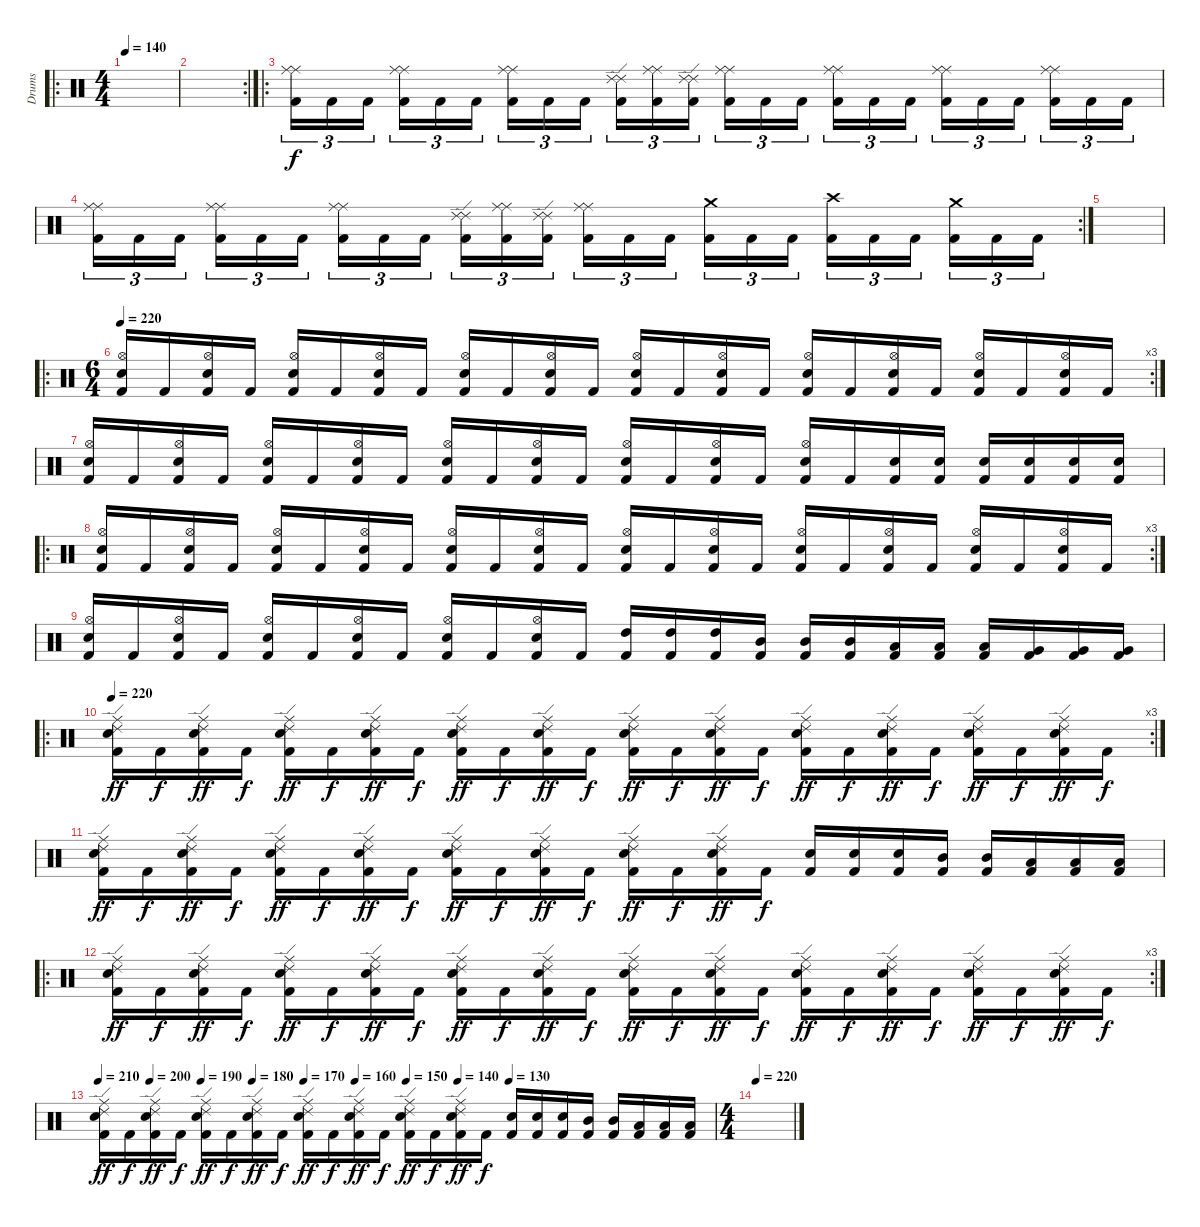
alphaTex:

\track ("Drums" "Drums") {instrument percussion}
\staff {score}
\articulation defaults
\ro
\ts (4 4)
\tempo 140
\clef neutral
\ks c
|
\rc 2
|
\ro
("Ride (middle)" "Ride (middle)" "Kick (hit) 2").16{tu (3 2)} "Kick (hit) 2".16{tu (3 2)} "Kick (hit) 2".16{tu (3 2)} ("Ride (middle)" "Ride (middle)" "Kick (hit) 2").16{tu (3 2)} "Kick (hit) 2".16{tu (3 2)} "Kick (hit) 2".16{tu (3 2)} ("Ride (middle)" "Ride (middle)" "Kick (hit) 2").16{tu (3 2)} "Kick (hit) 2".16{tu (3 2)} "Kick (hit) 2".16{tu (3 2)} ("Ride (edge) 2" "Ride (edge) 2" "Kick (hit) 2").16{tu (3 2)} ("Ride (middle)" "Ride (middle)" "Kick (hit) 2").16{tu (3 2)} ("Ride (edge) 2" "Ride (edge) 2" "Kick (hit) 2").16{tu (3 2)} ("Ride (middle)" "Ride (middle)" "Kick (hit) 2").16{tu (3 2)} "Kick (hit) 2".16{tu (3 2)} "Kick (hit) 2".16{tu (3 2)} ("Ride (middle)" "Ride (middle)" "Kick (hit) 2").16{tu (3 2)} "Kick (hit) 2".16{tu (3 2)} "Kick (hit) 2".16{tu (3 2)} ("Ride (middle)" "Ride (middle)" "Kick (hit) 2").16{tu (3 2)} "Kick (hit) 2".16{tu (3 2)} "Kick (hit) 2".16{tu (3 2)} ("Ride (middle)" "Ride (middle)" "Kick (hit) 2").16{tu (3 2)} "Kick (hit) 2".16{tu (3 2)} "Kick (hit) 2".16{tu (3 2)} |
\rc 2
("Ride (middle)" "Ride (middle)" "Kick (hit) 2").16{tu (3 2)} "Kick (hit) 2".16{tu (3 2)} "Kick (hit) 2".16{tu (3 2)} ("Ride (middle)" "Ride (middle)" "Kick (hit) 2").16{tu (3 2)} "Kick (hit) 2".16{tu (3 2)} "Kick (hit) 2".16{tu (3 2)} ("Ride (middle)" "Ride (middle)" "Kick (hit) 2").16{tu (3 2)} "Kick (hit) 2".16{tu (3 2)} "Kick (hit) 2".16{tu (3 2)} ("Ride (edge) 2" "Ride (edge) 2" "Kick (hit) 2").16{tu (3 2)} ("Ride (middle)" "Ride (middle)" "Kick (hit) 2").16{tu (3 2)} ("Ride (edge) 2" "Ride (edge) 2" "Kick (hit) 2").16{tu (3 2)} ("Ride (middle)" "Ride (middle)" "Kick (hit) 2").16{tu (3 2)} "Kick (hit) 2".16{tu (3 2)} "Kick (hit) 2".16{tu (3 2)} ("Crash medium (hit)" "Kick (hit) 2").16{tu (3 2)} "Kick (hit) 2".16{tu (3 2)} "Kick (hit) 2".16{tu (3 2)} ("Crash high (hit)" "Kick (hit) 2").16{tu (3 2)} "Kick (hit) 2".16{tu (3 2)} "Kick (hit) 2".16{tu (3 2)} ("Crash medium (hit)" "Kick (hit) 2").16{tu (3 2)} "Kick (hit) 2".16{tu (3 2)} "Kick (hit) 2".16{tu (3 2)} |
|
\ro
\rc 3
\ts (6 4)
\tempo 220
("Hi-Hat (open)" "Snare (hit) 2" "Kick (hit) 2").16 "Kick (hit) 2".16 ("Hi-Hat (open)" "Snare (hit) 2" "Kick (hit) 2").16 "Kick (hit) 2".16 ("Hi-Hat (open)" "Snare (hit) 2" "Kick (hit) 2").16 "Kick (hit) 2".16 ("Hi-Hat (open)" "Snare (hit) 2" "Kick (hit) 2").16 "Kick (hit) 2".16 ("Hi-Hat (open)" "Snare (hit) 2" "Kick (hit) 2").16 "Kick (hit) 2".16 ("Hi-Hat (open)" "Snare (hit) 2" "Kick (hit) 2").16 "Kick (hit) 2".16 ("Hi-Hat (open)" "Snare (hit) 2" "Kick (hit) 2").16 "Kick (hit) 2".16 ("Hi-Hat (open)" "Snare (hit) 2" "Kick (hit) 2").16 "Kick (hit) 2".16 ("Hi-Hat (open)" "Snare (hit) 2" "Kick (hit) 2").16 "Kick (hit) 2".16 ("Hi-Hat (open)" "Snare (hit) 2" "Kick (hit) 2").16 "Kick (hit) 2".16 ("Hi-Hat (open)" "Snare (hit) 2" "Kick (hit) 2").16 "Kick (hit) 2".16 ("Hi-Hat (open)" "Snare (hit) 2" "Kick (hit) 2").16 "Kick (hit) 2".16 |
("Hi-Hat (open)" "Snare (hit) 2" "Kick (hit) 2").16 "Kick (hit) 2".16 ("Hi-Hat (open)" "Snare (hit) 2" "Kick (hit) 2").16 "Kick (hit) 2".16 ("Hi-Hat (open)" "Snare (hit) 2" "Kick (hit) 2").16 "Kick (hit) 2".16 ("Hi-Hat (open)" "Snare (hit) 2" "Kick (hit) 2").16 "Kick (hit) 2".16 ("Hi-Hat (open)" "Snare (hit) 2" "Kick (hit) 2").16 "Kick (hit) 2".16 ("Hi-Hat (open)" "Snare (hit) 2" "Kick (hit) 2").16 "Kick (hit) 2".16 ("Hi-Hat (open)" "Snare (hit) 2" "Kick (hit) 2").16 "Kick (hit) 2".16 ("Hi-Hat (open)" "Snare (hit) 2" "Kick (hit) 2").16 "Kick (hit) 2".16 ("Hi-Hat (open)" "Snare (hit) 2" "Kick (hit) 2").16 "Kick (hit) 2".16 ("Snare (hit) 2" "Kick (hit) 2").16 ("Snare (hit) 2" "Kick (hit) 2").16 ("Snare (hit) 2" "Kick (hit) 2").16 ("Snare (hit) 2" "Kick (hit) 2").16 ("Snare (hit) 2" "Kick (hit) 2").16 ("Snare (hit) 2" "Kick (hit) 2").16 |
\ro
\rc 3
("Hi-Hat (open)" "Snare (hit) 2" "Kick (hit) 2").16 "Kick (hit) 2".16 ("Hi-Hat (open)" "Snare (hit) 2" "Kick (hit) 2").16 "Kick (hit) 2".16 ("Hi-Hat (open)" "Snare (hit) 2" "Kick (hit) 2").16 "Kick (hit) 2".16 ("Hi-Hat (open)" "Snare (hit) 2" "Kick (hit) 2").16 "Kick (hit) 2".16 ("Hi-Hat (open)" "Snare (hit) 2" "Kick (hit) 2").16 "Kick (hit) 2".16 ("Hi-Hat (open)" "Snare (hit) 2" "Kick (hit) 2").16 "Kick (hit) 2".16 ("Hi-Hat (open)" "Snare (hit) 2" "Kick (hit) 2").16 "Kick (hit) 2".16 ("Hi-Hat (open)" "Snare (hit) 2" "Kick (hit) 2").16 "Kick (hit) 2".16 ("Hi-Hat (open)" "Snare (hit) 2" "Kick (hit) 2").16 "Kick (hit) 2".16 ("Hi-Hat (open)" "Snare (hit) 2" "Kick (hit) 2").16 "Kick (hit) 2".16 ("Hi-Hat (open)" "Snare (hit) 2" "Kick (hit) 2").16 "Kick (hit) 2".16 ("Hi-Hat (open)" "Snare (hit) 2" "Kick (hit) 2").16 "Kick (hit) 2".16 |
("Hi-Hat (open)" "Snare (hit) 2" "Kick (hit) 2").16 "Kick (hit) 2".16 ("Hi-Hat (open)" "Snare (hit) 2" "Kick (hit) 2").16 "Kick (hit) 2".16 ("Hi-Hat (open)" "Snare (hit) 2" "Kick (hit) 2").16 "Kick (hit) 2".16 ("Hi-Hat (open)" "Snare (hit) 2" "Kick (hit) 2").16 "Kick (hit) 2".16 ("Hi-Hat (open)" "Snare (hit) 2" "Kick (hit) 2").16 "Kick (hit) 2".16 ("Hi-Hat (open)" "Snare (hit) 2" "Kick (hit) 2").16 "Kick (hit) 2".16 ("High Tom (hit)" "Kick (hit) 2").16 ("High Tom (hit)" "Kick (hit) 2").16 ("High Tom (hit)" "Kick (hit) 2").16 ("Mid Tom (hit)" "Kick (hit) 2").16 ("Mid Tom (hit)" "Kick (hit) 2").16 ("Mid Tom (hit)" "Kick (hit) 2").16 ("Low Tom (hit)" "Kick (hit) 2").16 ("Low Tom (hit)" "Kick (hit) 2").16 ("Low Tom (hit)" "Kick (hit) 2").16 ("Very Low Tom (hit)" "Kick (hit) 2").16 ("Very Low Tom (hit)" "Kick (hit) 2").16 ("Very Low Tom (hit)" "Kick (hit) 2").16 |
\ro
\rc 3
\tempo 220
("Ride (edge) 2" "Ride (middle)" "Snare (hit) 2" "Kick (hit) 2").16{dy ff} "Kick (hit) 2".16{dy f} ("Ride (edge) 2" "Ride (middle)" "Snare (hit) 2" "Kick (hit) 2").16{dy ff} "Kick (hit) 2".16{dy f} ("Ride (edge) 2" "Ride (middle)" "Snare (hit) 2" "Kick (hit) 2").16{dy ff} "Kick (hit) 2".16{dy f} ("Ride (edge) 2" "Ride (middle)" "Snare (hit) 2" "Kick (hit) 2").16{dy ff} "Kick (hit) 2".16{dy f} ("Ride (edge) 2" "Ride (middle)" "Snare (hit) 2" "Kick (hit) 2").16{dy ff} "Kick (hit) 2".16{dy f} ("Ride (edge) 2" "Ride (middle)" "Snare (hit) 2" "Kick (hit) 2").16{dy ff} "Kick (hit) 2".16{dy f} ("Ride (edge) 2" "Ride (middle)" "Snare (hit) 2" "Kick (hit) 2").16{dy ff} "Kick (hit) 2".16{dy f} ("Ride (edge) 2" "Ride (middle)" "Snare (hit) 2" "Kick (hit) 2").16{dy ff} "Kick (hit) 2".16{dy f} ("Ride (edge) 2" "Ride (middle)" "Snare (hit) 2" "Kick (hit) 2").16{dy ff} "Kick (hit) 2".16{dy f} ("Ride (edge) 2" "Ride (middle)" "Snare (hit) 2" "Kick (hit) 2").16{dy ff} "Kick (hit) 2".16{dy f} ("Ride (edge) 2" "Ride (middle)" "Snare (hit) 2" "Kick (hit) 2").16{dy ff} "Kick (hit) 2".16{dy f} ("Ride (edge) 2" "Ride (middle)" "Snare (hit) 2" "Kick (hit) 2").16{dy ff} "Kick (hit) 2".16{dy f} |
("Ride (edge) 2" "Ride (middle)" "Snare (hit) 2" "Kick (hit) 2").16{dy ff} "Kick (hit) 2".16{dy f} ("Ride (edge) 2" "Ride (middle)" "Snare (hit) 2" "Kick (hit) 2").16{dy ff} "Kick (hit) 2".16{dy f} ("Ride (edge) 2" "Ride (middle)" "Snare (hit) 2" "Kick (hit) 2").16{dy ff} "Kick (hit) 2".16{dy f} ("Ride (edge) 2" "Ride (middle)" "Snare (hit) 2" "Kick (hit) 2").16{dy ff} "Kick (hit) 2".16{dy f} ("Ride (edge) 2" "Ride (middle)" "Snare (hit) 2" "Kick (hit) 2").16{dy ff} "Kick (hit) 2".16{dy f} ("Ride (edge) 2" "Ride (middle)" "Snare (hit) 2" "Kick (hit) 2").16{dy ff} "Kick (hit) 2".16{dy f} ("Ride (edge) 2" "Ride (middle)" "Snare (hit) 2" "Kick (hit) 2").16{dy ff} "Kick (hit) 2".16{dy f} ("Ride (edge) 2" "Ride (middle)" "Snare (hit) 2" "Kick (hit) 2").16{dy ff} "Kick (hit) 2".16{dy f} ("Snare (hit) 2" "Kick (hit) 2").16 ("Snare (hit) 2" "Kick (hit) 2").16 ("Snare (hit) 2" "Kick (hit) 2").16 ("Mid Tom (hit)" "Kick (hit) 2").16 ("Mid Tom (hit)" "Kick (hit) 2").16 ("Low Tom (hit)" "Kick (hit) 2").16 ("Low Tom (hit)" "Kick (hit) 2").16 ("Low Tom (hit)" "Kick (hit) 2").16 |
\ro
\rc 3
("Ride (edge) 2" "Ride (middle)" "Snare (hit) 2" "Kick (hit) 2").16{dy ff} "Kick (hit) 2".16{dy f} ("Ride (edge) 2" "Ride (middle)" "Snare (hit) 2" "Kick (hit) 2").16{dy ff} "Kick (hit) 2".16{dy f} ("Ride (edge) 2" "Ride (middle)" "Snare (hit) 2" "Kick (hit) 2").16{dy ff} "Kick (hit) 2".16{dy f} ("Ride (edge) 2" "Ride (middle)" "Snare (hit) 2" "Kick (hit) 2").16{dy ff} "Kick (hit) 2".16{dy f} ("Ride (edge) 2" "Ride (middle)" "Snare (hit) 2" "Kick (hit) 2").16{dy ff} "Kick (hit) 2".16{dy f} ("Ride (edge) 2" "Ride (middle)" "Snare (hit) 2" "Kick (hit) 2").16{dy ff} "Kick (hit) 2".16{dy f} ("Ride (edge) 2" "Ride (middle)" "Snare (hit) 2" "Kick (hit) 2").16{dy ff} "Kick (hit) 2".16{dy f} ("Ride (edge) 2" "Ride (middle)" "Snare (hit) 2" "Kick (hit) 2").16{dy ff} "Kick (hit) 2".16{dy f} ("Ride (edge) 2" "Ride (middle)" "Snare (hit) 2" "Kick (hit) 2").16{dy ff} "Kick (hit) 2".16{dy f} ("Ride (edge) 2" "Ride (middle)" "Snare (hit) 2" "Kick (hit) 2").16{dy ff} "Kick (hit) 2".16{dy f} ("Ride (edge) 2" "Ride (middle)" "Snare (hit) 2" "Kick (hit) 2").16{dy ff} "Kick (hit) 2".16{dy f} ("Ride (edge) 2" "Ride (middle)" "Snare (hit) 2" "Kick (hit) 2").16{dy ff} "Kick (hit) 2".16{dy f} |
\tempo 210
\tempo (200 0.08333333333333333)
\tempo (190 0.16666666666666666)
\tempo (180 0.25)
\tempo (170 0.3333333333333333)
\tempo (160 0.4166666666666667)
\tempo (150 0.5)
\tempo (140 0.5833333333333334)
\tempo (130 0.6666666666666666)
("Ride (edge) 2" "Ride (middle)" "Snare (hit) 2" "Kick (hit) 2").16{dy ff} "Kick (hit) 2".16{dy f} ("Ride (edge) 2" "Ride (middle)" "Snare (hit) 2" "Kick (hit) 2").16{dy ff} "Kick (hit) 2".16{dy f} ("Ride (edge) 2" "Ride (middle)" "Snare (hit) 2" "Kick (hit) 2").16{dy ff} "Kick (hit) 2".16{dy f} ("Ride (edge) 2" "Ride (middle)" "Snare (hit) 2" "Kick (hit) 2").16{dy ff} "Kick (hit) 2".16{dy f} ("Ride (edge) 2" "Ride (middle)" "Snare (hit) 2" "Kick (hit) 2").16{dy ff} "Kick (hit) 2".16{dy f} ("Ride (edge) 2" "Ride (middle)" "Snare (hit) 2" "Kick (hit) 2").16{dy ff} "Kick (hit) 2".16{dy f} ("Ride (edge) 2" "Ride (middle)" "Snare (hit) 2" "Kick (hit) 2").16{dy ff} "Kick (hit) 2".16{dy f} ("Ride (edge) 2" "Ride (middle)" "Snare (hit) 2" "Kick (hit) 2").16{dy ff} "Kick (hit) 2".16{dy f} ("Snare (hit) 2" "Kick (hit) 2").16 ("Snare (hit) 2" "Kick (hit) 2").16 ("Snare (hit) 2" "Kick (hit) 2").16 ("Mid Tom (hit)" "Kick (hit) 2").16 ("Mid Tom (hit)" "Kick (hit) 2").16 ("Low Tom (hit)" "Kick (hit) 2").16 ("Low Tom (hit)" "Kick (hit) 2").16 ("Low Tom (hit)" "Kick (hit) 2").16 |
\ts (4 4)
\tempo 220
